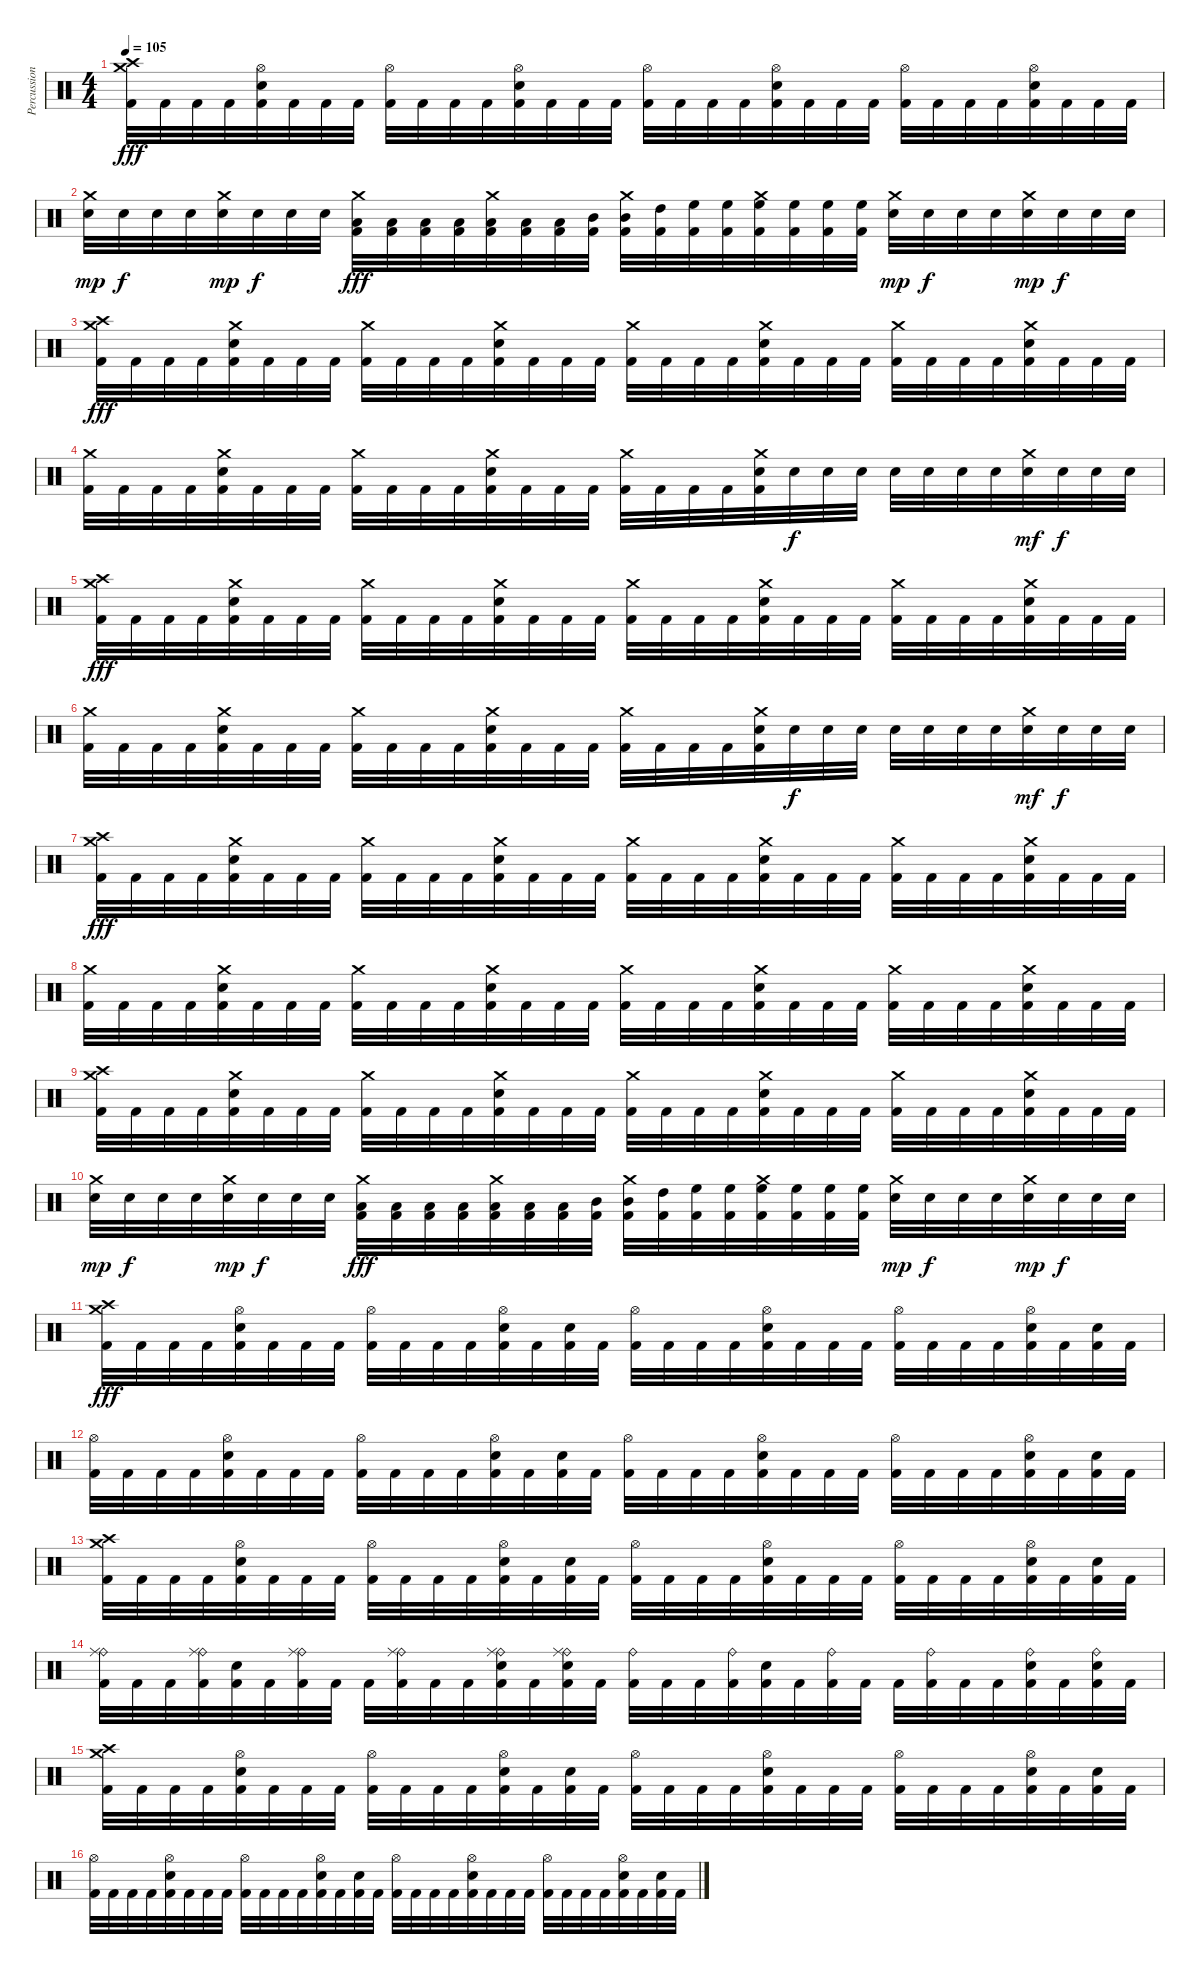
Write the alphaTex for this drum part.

\track ("Percussions" "Percussion") {instrument percussion}
\staff {score}
\articulation defaults
\ts (4 4)
\tempo 105
\clef neutral
\ks c
("Crash high (hit)" "Crash medium (hit)" "Kick (hit) 2").32{dy fff} "Kick (hit) 2".32 "Kick (hit) 2".32 "Kick (hit) 2".32 ("Hi-Hat (open)" "Electric Snare (hit)" "Kick (hit) 2").32 "Kick (hit) 2".32 "Kick (hit) 2".32 "Kick (hit) 2".32 ("Hi-Hat (open)" "Kick (hit) 2").32 "Kick (hit) 2".32 "Kick (hit) 2".32 "Kick (hit) 2".32 ("Hi-Hat (open)" "Electric Snare (hit)" "Kick (hit) 2").32 "Kick (hit) 2".32 "Kick (hit) 2".32 "Kick (hit) 2".32 ("Hi-Hat (open)" "Kick (hit) 2").32 "Kick (hit) 2".32 "Kick (hit) 2".32 "Kick (hit) 2".32 ("Hi-Hat (open)" "Electric Snare (hit)" "Kick (hit) 2").32 "Kick (hit) 2".32 "Kick (hit) 2".32 "Kick (hit) 2".32 ("Hi-Hat (open)" "Kick (hit) 2").32 "Kick (hit) 2".32 "Kick (hit) 2".32 "Kick (hit) 2".32 ("Hi-Hat (open)" "Electric Snare (hit)" "Kick (hit) 2").32 "Kick (hit) 2".32 "Kick (hit) 2".32 "Kick (hit) 2".32 |
("Crash medium (hit)" "Electric Snare (hit)").32{dy mp} "Electric Snare (hit)".32{dy f} "Electric Snare (hit)".32 "Electric Snare (hit)".32 ("Crash medium (hit)" "Electric Snare (hit)").32{dy mp} "Electric Snare (hit)".32{dy f} "Electric Snare (hit)".32 "Electric Snare (hit)".32 ("Crash medium (hit)" "Low Floor Tom (hit)" "Kick (hit) 2").32{dy fff} ("Low Floor Tom (hit)" "Kick (hit) 2").32 ("Low Floor Tom (hit)" "Kick (hit) 2").32 ("Low Floor Tom (hit)" "Kick (hit) 2").32 ("Crash medium (hit)" "Low Tom (hit)" "Kick (hit) 2").32 ("Low Tom (hit)" "Kick (hit) 2").32 ("Low Tom (hit)" "Kick (hit) 2").32 ("Mid Tom (hit)" "Kick (hit) 2").32 ("Crash medium (hit)" "Mid Tom (hit)" "Kick (hit) 2").32 ("High Tom (hit)" "Kick (hit) 2").32 ("High Floor Tom (hit)" "Kick (hit) 2").32 ("High Floor Tom (hit)" "Kick (hit) 2").32 ("Crash medium (hit)" "High Floor Tom (hit)" "Kick (hit) 2").32 ("High Floor Tom (hit)" "Kick (hit) 2").32 ("High Floor Tom (hit)" "Kick (hit) 2").32 ("High Floor Tom (hit)" "Kick (hit) 2").32 ("Crash medium (hit)" "Electric Snare (hit)").32{dy mp} "Electric Snare (hit)".32{dy f} "Electric Snare (hit)".32 "Electric Snare (hit)".32 ("Crash medium (hit)" "Electric Snare (hit)").32{dy mp} "Electric Snare (hit)".32{dy f} "Electric Snare (hit)".32 "Electric Snare (hit)".32 |
("Crash high (hit)" "Crash medium (hit)" "Kick (hit) 2").32{dy fff} "Kick (hit) 2".32 "Kick (hit) 2".32 "Kick (hit) 2".32 ("Crash medium (hit)" "Electric Snare (hit)" "Kick (hit) 2").32 "Kick (hit) 2".32 "Kick (hit) 2".32 "Kick (hit) 2".32 ("Crash medium (hit)" "Kick (hit) 2").32 "Kick (hit) 2".32 "Kick (hit) 2".32 "Kick (hit) 2".32 ("Crash medium (hit)" "Electric Snare (hit)" "Kick (hit) 2").32 "Kick (hit) 2".32 "Kick (hit) 2".32 "Kick (hit) 2".32 ("Crash medium (hit)" "Kick (hit) 2").32 "Kick (hit) 2".32 "Kick (hit) 2".32 "Kick (hit) 2".32 ("Crash medium (hit)" "Electric Snare (hit)" "Kick (hit) 2").32 "Kick (hit) 2".32 "Kick (hit) 2".32 "Kick (hit) 2".32 ("Crash medium (hit)" "Kick (hit) 2").32 "Kick (hit) 2".32 "Kick (hit) 2".32 "Kick (hit) 2".32 ("Crash medium (hit)" "Electric Snare (hit)" "Kick (hit) 2").32 "Kick (hit) 2".32 "Kick (hit) 2".32 "Kick (hit) 2".32 |
("Crash medium (hit)" "Kick (hit) 2").32 "Kick (hit) 2".32 "Kick (hit) 2".32 "Kick (hit) 2".32 ("Crash medium (hit)" "Electric Snare (hit)" "Kick (hit) 2").32 "Kick (hit) 2".32 "Kick (hit) 2".32 "Kick (hit) 2".32 ("Crash medium (hit)" "Kick (hit) 2").32 "Kick (hit) 2".32 "Kick (hit) 2".32 "Kick (hit) 2".32 ("Crash medium (hit)" "Electric Snare (hit)" "Kick (hit) 2").32 "Kick (hit) 2".32 "Kick (hit) 2".32 "Kick (hit) 2".32 ("Crash medium (hit)" "Kick (hit) 2").32 "Kick (hit) 2".32 "Kick (hit) 2".32 "Kick (hit) 2".32 ("Crash medium (hit)" "Electric Snare (hit)" "Kick (hit) 2").32 "Electric Snare (hit)".32{dy f} "Electric Snare (hit)".32 "Electric Snare (hit)".32 "Electric Snare (hit)".32 "Electric Snare (hit)".32 "Electric Snare (hit)".32 "Electric Snare (hit)".32 ("Crash medium (hit)" "Electric Snare (hit)").32{dy mf} "Electric Snare (hit)".32{dy f} "Electric Snare (hit)".32 "Electric Snare (hit)".32 |
("Crash high (hit)" "Crash medium (hit)" "Kick (hit) 2").32{dy fff} "Kick (hit) 2".32 "Kick (hit) 2".32 "Kick (hit) 2".32 ("Crash medium (hit)" "Electric Snare (hit)" "Kick (hit) 2").32 "Kick (hit) 2".32 "Kick (hit) 2".32 "Kick (hit) 2".32 ("Crash medium (hit)" "Kick (hit) 2").32 "Kick (hit) 2".32 "Kick (hit) 2".32 "Kick (hit) 2".32 ("Crash medium (hit)" "Electric Snare (hit)" "Kick (hit) 2").32 "Kick (hit) 2".32 "Kick (hit) 2".32 "Kick (hit) 2".32 ("Crash medium (hit)" "Kick (hit) 2").32 "Kick (hit) 2".32 "Kick (hit) 2".32 "Kick (hit) 2".32 ("Crash medium (hit)" "Electric Snare (hit)" "Kick (hit) 2").32 "Kick (hit) 2".32 "Kick (hit) 2".32 "Kick (hit) 2".32 ("Crash medium (hit)" "Kick (hit) 2").32 "Kick (hit) 2".32 "Kick (hit) 2".32 "Kick (hit) 2".32 ("Crash medium (hit)" "Electric Snare (hit)" "Kick (hit) 2").32 "Kick (hit) 2".32 "Kick (hit) 2".32 "Kick (hit) 2".32 |
("Crash medium (hit)" "Kick (hit) 2").32 "Kick (hit) 2".32 "Kick (hit) 2".32 "Kick (hit) 2".32 ("Crash medium (hit)" "Electric Snare (hit)" "Kick (hit) 2").32 "Kick (hit) 2".32 "Kick (hit) 2".32 "Kick (hit) 2".32 ("Crash medium (hit)" "Kick (hit) 2").32 "Kick (hit) 2".32 "Kick (hit) 2".32 "Kick (hit) 2".32 ("Crash medium (hit)" "Electric Snare (hit)" "Kick (hit) 2").32 "Kick (hit) 2".32 "Kick (hit) 2".32 "Kick (hit) 2".32 ("Crash medium (hit)" "Kick (hit) 2").32 "Kick (hit) 2".32 "Kick (hit) 2".32 "Kick (hit) 2".32 ("Crash medium (hit)" "Electric Snare (hit)" "Kick (hit) 2").32 "Electric Snare (hit)".32{dy f} "Electric Snare (hit)".32 "Electric Snare (hit)".32 "Electric Snare (hit)".32 "Electric Snare (hit)".32 "Electric Snare (hit)".32 "Electric Snare (hit)".32 ("Crash medium (hit)" "Electric Snare (hit)").32{dy mf} "Electric Snare (hit)".32{dy f} "Electric Snare (hit)".32 "Electric Snare (hit)".32 |
("Crash high (hit)" "Crash medium (hit)" "Kick (hit) 2").32{dy fff} "Kick (hit) 2".32 "Kick (hit) 2".32 "Kick (hit) 2".32 ("Crash medium (hit)" "Electric Snare (hit)" "Kick (hit) 2").32 "Kick (hit) 2".32 "Kick (hit) 2".32 "Kick (hit) 2".32 ("Crash medium (hit)" "Kick (hit) 2").32 "Kick (hit) 2".32 "Kick (hit) 2".32 "Kick (hit) 2".32 ("Crash medium (hit)" "Electric Snare (hit)" "Kick (hit) 2").32 "Kick (hit) 2".32 "Kick (hit) 2".32 "Kick (hit) 2".32 ("Crash medium (hit)" "Kick (hit) 2").32 "Kick (hit) 2".32 "Kick (hit) 2".32 "Kick (hit) 2".32 ("Crash medium (hit)" "Electric Snare (hit)" "Kick (hit) 2").32 "Kick (hit) 2".32 "Kick (hit) 2".32 "Kick (hit) 2".32 ("Crash medium (hit)" "Kick (hit) 2").32 "Kick (hit) 2".32 "Kick (hit) 2".32 "Kick (hit) 2".32 ("Crash medium (hit)" "Electric Snare (hit)" "Kick (hit) 2").32 "Kick (hit) 2".32 "Kick (hit) 2".32 "Kick (hit) 2".32 |
("Crash medium (hit)" "Kick (hit) 2").32 "Kick (hit) 2".32 "Kick (hit) 2".32 "Kick (hit) 2".32 ("Crash medium (hit)" "Electric Snare (hit)" "Kick (hit) 2").32 "Kick (hit) 2".32 "Kick (hit) 2".32 "Kick (hit) 2".32 ("Crash medium (hit)" "Kick (hit) 2").32 "Kick (hit) 2".32 "Kick (hit) 2".32 "Kick (hit) 2".32 ("Crash medium (hit)" "Electric Snare (hit)" "Kick (hit) 2").32 "Kick (hit) 2".32 "Kick (hit) 2".32 "Kick (hit) 2".32 ("Crash medium (hit)" "Kick (hit) 2").32 "Kick (hit) 2".32 "Kick (hit) 2".32 "Kick (hit) 2".32 ("Crash medium (hit)" "Electric Snare (hit)" "Kick (hit) 2").32 "Kick (hit) 2".32 "Kick (hit) 2".32 "Kick (hit) 2".32 ("Crash medium (hit)" "Kick (hit) 2").32 "Kick (hit) 2".32 "Kick (hit) 2".32 "Kick (hit) 2".32 ("Crash medium (hit)" "Electric Snare (hit)" "Kick (hit) 2").32 "Kick (hit) 2".32 "Kick (hit) 2".32 "Kick (hit) 2".32 |
("Crash high (hit)" "Crash medium (hit)" "Kick (hit) 2").32 "Kick (hit) 2".32 "Kick (hit) 2".32 "Kick (hit) 2".32 ("Crash medium (hit)" "Electric Snare (hit)" "Kick (hit) 2").32 "Kick (hit) 2".32 "Kick (hit) 2".32 "Kick (hit) 2".32 ("Crash medium (hit)" "Kick (hit) 2").32 "Kick (hit) 2".32 "Kick (hit) 2".32 "Kick (hit) 2".32 ("Crash medium (hit)" "Electric Snare (hit)" "Kick (hit) 2").32 "Kick (hit) 2".32 "Kick (hit) 2".32 "Kick (hit) 2".32 ("Crash medium (hit)" "Kick (hit) 2").32 "Kick (hit) 2".32 "Kick (hit) 2".32 "Kick (hit) 2".32 ("Crash medium (hit)" "Electric Snare (hit)" "Kick (hit) 2").32 "Kick (hit) 2".32 "Kick (hit) 2".32 "Kick (hit) 2".32 ("Crash medium (hit)" "Kick (hit) 2").32 "Kick (hit) 2".32 "Kick (hit) 2".32 "Kick (hit) 2".32 ("Crash medium (hit)" "Electric Snare (hit)" "Kick (hit) 2").32 "Kick (hit) 2".32 "Kick (hit) 2".32 "Kick (hit) 2".32 |
("Crash medium (hit)" "Electric Snare (hit)").32{dy mp} "Electric Snare (hit)".32{dy f} "Electric Snare (hit)".32 "Electric Snare (hit)".32 ("Crash medium (hit)" "Electric Snare (hit)").32{dy mp} "Electric Snare (hit)".32{dy f} "Electric Snare (hit)".32 "Electric Snare (hit)".32 ("Crash medium (hit)" "Low Floor Tom (hit)" "Kick (hit) 2").32{dy fff} ("Low Floor Tom (hit)" "Kick (hit) 2").32 ("Low Floor Tom (hit)" "Kick (hit) 2").32 ("Low Floor Tom (hit)" "Kick (hit) 2").32 ("Crash medium (hit)" "Low Tom (hit)" "Kick (hit) 2").32 ("Low Tom (hit)" "Kick (hit) 2").32 ("Low Tom (hit)" "Kick (hit) 2").32 ("Mid Tom (hit)" "Kick (hit) 2").32 ("Crash medium (hit)" "Mid Tom (hit)" "Kick (hit) 2").32 ("High Tom (hit)" "Kick (hit) 2").32 ("High Floor Tom (hit)" "Kick (hit) 2").32 ("High Floor Tom (hit)" "Kick (hit) 2").32 ("Crash medium (hit)" "High Floor Tom (hit)" "Kick (hit) 2").32 ("High Floor Tom (hit)" "Kick (hit) 2").32 ("High Floor Tom (hit)" "Kick (hit) 2").32 ("High Floor Tom (hit)" "Kick (hit) 2").32 ("Crash medium (hit)" "Electric Snare (hit)").32{dy mp} "Electric Snare (hit)".32{dy f} "Electric Snare (hit)".32 "Electric Snare (hit)".32 ("Crash medium (hit)" "Electric Snare (hit)").32{dy mp} "Electric Snare (hit)".32{dy f} "Electric Snare (hit)".32 "Electric Snare (hit)".32 |
("Crash high (hit)" "Crash medium (hit)" "Kick (hit) 2").32{dy fff} "Kick (hit) 2".32 "Kick (hit) 2".32 "Kick (hit) 2".32 ("Hi-Hat (open)" "Electric Snare (hit)" "Kick (hit) 2").32 "Kick (hit) 2".32 "Kick (hit) 2".32 "Kick (hit) 2".32 ("Hi-Hat (open)" "Kick (hit) 2").32 "Kick (hit) 2".32 "Kick (hit) 2".32 "Kick (hit) 2".32 ("Hi-Hat (open)" "Electric Snare (hit)" "Kick (hit) 2").32 "Kick (hit) 2".32 ("Electric Snare (hit)" "Kick (hit) 2").32 "Kick (hit) 2".32 ("Hi-Hat (open)" "Kick (hit) 2").32 "Kick (hit) 2".32 "Kick (hit) 2".32 "Kick (hit) 2".32 ("Hi-Hat (open)" "Electric Snare (hit)" "Kick (hit) 2").32 "Kick (hit) 2".32 "Kick (hit) 2".32 "Kick (hit) 2".32 ("Hi-Hat (open)" "Kick (hit) 2").32 "Kick (hit) 2".32 "Kick (hit) 2".32 "Kick (hit) 2".32 ("Hi-Hat (open)" "Electric Snare (hit)" "Kick (hit) 2").32 "Kick (hit) 2".32 ("Electric Snare (hit)" "Kick (hit) 2").32 "Kick (hit) 2".32 |
("Hi-Hat (open)" "Kick (hit) 2").32 "Kick (hit) 2".32 "Kick (hit) 2".32 "Kick (hit) 2".32 ("Hi-Hat (open)" "Electric Snare (hit)" "Kick (hit) 2").32 "Kick (hit) 2".32 "Kick (hit) 2".32 "Kick (hit) 2".32 ("Hi-Hat (open)" "Kick (hit) 2").32 "Kick (hit) 2".32 "Kick (hit) 2".32 "Kick (hit) 2".32 ("Hi-Hat (open)" "Electric Snare (hit)" "Kick (hit) 2").32 "Kick (hit) 2".32 ("Electric Snare (hit)" "Kick (hit) 2").32 "Kick (hit) 2".32 ("Hi-Hat (open)" "Kick (hit) 2").32 "Kick (hit) 2".32 "Kick (hit) 2".32 "Kick (hit) 2".32 ("Hi-Hat (open)" "Electric Snare (hit)" "Kick (hit) 2").32 "Kick (hit) 2".32 "Kick (hit) 2".32 "Kick (hit) 2".32 ("Hi-Hat (open)" "Kick (hit) 2").32 "Kick (hit) 2".32 "Kick (hit) 2".32 "Kick (hit) 2".32 ("Hi-Hat (open)" "Electric Snare (hit)" "Kick (hit) 2").32 "Kick (hit) 2".32 ("Electric Snare (hit)" "Kick (hit) 2").32 "Kick (hit) 2".32 |
("Crash high (hit)" "Crash medium (hit)" "Kick (hit) 2").32 "Kick (hit) 2".32 "Kick (hit) 2".32 "Kick (hit) 2".32 ("Hi-Hat (open)" "Electric Snare (hit)" "Kick (hit) 2").32 "Kick (hit) 2".32 "Kick (hit) 2".32 "Kick (hit) 2".32 ("Hi-Hat (open)" "Kick (hit) 2").32 "Kick (hit) 2".32 "Kick (hit) 2".32 "Kick (hit) 2".32 ("Hi-Hat (open)" "Electric Snare (hit)" "Kick (hit) 2").32 "Kick (hit) 2".32 ("Electric Snare (hit)" "Kick (hit) 2").32 "Kick (hit) 2".32 ("Hi-Hat (open)" "Kick (hit) 2").32 "Kick (hit) 2".32 "Kick (hit) 2".32 "Kick (hit) 2".32 ("Hi-Hat (open)" "Electric Snare (hit)" "Kick (hit) 2").32 "Kick (hit) 2".32 "Kick (hit) 2".32 "Kick (hit) 2".32 ("Hi-Hat (open)" "Kick (hit) 2").32 "Kick (hit) 2".32 "Kick (hit) 2".32 "Kick (hit) 2".32 ("Hi-Hat (open)" "Electric Snare (hit)" "Kick (hit) 2").32 "Kick (hit) 2".32 ("Electric Snare (hit)" "Kick (hit) 2").32 "Kick (hit) 2".32 |
("Ride (bell)" "Ride (middle)" "Kick (hit) 2").32 "Kick (hit) 2".32 "Kick (hit) 2".32 ("Ride (bell)" "Ride (middle)" "Kick (hit) 2").32 ("Electric Snare (hit)" "Kick (hit) 2").32 "Kick (hit) 2".32 ("Ride (bell)" "Ride (middle)" "Kick (hit) 2").32 "Kick (hit) 2".32 "Kick (hit) 2".32 ("Ride (bell)" "Ride (middle)" "Kick (hit) 2").32 "Kick (hit) 2".32 "Kick (hit) 2".32 ("Ride (bell)" "Ride (middle)" "Electric Snare (hit)" "Kick (hit) 2").32 "Kick (hit) 2".32 ("Ride (bell)" "Ride (middle)" "Electric Snare (hit)" "Kick (hit) 2").32 "Kick (hit) 2".32 ("Ride (bell)" "Kick (hit) 2").32 "Kick (hit) 2".32 "Kick (hit) 2".32 ("Ride (bell)" "Kick (hit) 2").32 ("Electric Snare (hit)" "Kick (hit) 2").32 "Kick (hit) 2".32 ("Ride (bell)" "Kick (hit) 2").32 "Kick (hit) 2".32 "Kick (hit) 2".32 ("Ride (bell)" "Kick (hit) 2").32 "Kick (hit) 2".32 "Kick (hit) 2".32 ("Ride (bell)" "Electric Snare (hit)" "Kick (hit) 2").32 "Kick (hit) 2".32 ("Ride (bell)" "Electric Snare (hit)" "Kick (hit) 2").32 "Kick (hit) 2".32 |
("Crash high (hit)" "Crash medium (hit)" "Kick (hit) 2").32 "Kick (hit) 2".32 "Kick (hit) 2".32 "Kick (hit) 2".32 ("Hi-Hat (open)" "Electric Snare (hit)" "Kick (hit) 2").32 "Kick (hit) 2".32 "Kick (hit) 2".32 "Kick (hit) 2".32 ("Hi-Hat (open)" "Kick (hit) 2").32 "Kick (hit) 2".32 "Kick (hit) 2".32 "Kick (hit) 2".32 ("Hi-Hat (open)" "Electric Snare (hit)" "Kick (hit) 2").32 "Kick (hit) 2".32 ("Electric Snare (hit)" "Kick (hit) 2").32 "Kick (hit) 2".32 ("Hi-Hat (open)" "Kick (hit) 2").32 "Kick (hit) 2".32 "Kick (hit) 2".32 "Kick (hit) 2".32 ("Hi-Hat (open)" "Electric Snare (hit)" "Kick (hit) 2").32 "Kick (hit) 2".32 "Kick (hit) 2".32 "Kick (hit) 2".32 ("Hi-Hat (open)" "Kick (hit) 2").32 "Kick (hit) 2".32 "Kick (hit) 2".32 "Kick (hit) 2".32 ("Hi-Hat (open)" "Electric Snare (hit)" "Kick (hit) 2").32 "Kick (hit) 2".32 ("Electric Snare (hit)" "Kick (hit) 2").32 "Kick (hit) 2".32 |
("Hi-Hat (open)" "Kick (hit) 2").32 "Kick (hit) 2".32 "Kick (hit) 2".32 "Kick (hit) 2".32 ("Hi-Hat (open)" "Electric Snare (hit)" "Kick (hit) 2").32 "Kick (hit) 2".32 "Kick (hit) 2".32 "Kick (hit) 2".32 ("Hi-Hat (open)" "Kick (hit) 2").32 "Kick (hit) 2".32 "Kick (hit) 2".32 "Kick (hit) 2".32 ("Hi-Hat (open)" "Electric Snare (hit)" "Kick (hit) 2").32 "Kick (hit) 2".32 ("Electric Snare (hit)" "Kick (hit) 2").32 "Kick (hit) 2".32 ("Hi-Hat (open)" "Kick (hit) 2").32 "Kick (hit) 2".32 "Kick (hit) 2".32 "Kick (hit) 2".32 ("Hi-Hat (open)" "Electric Snare (hit)" "Kick (hit) 2").32 "Kick (hit) 2".32 "Kick (hit) 2".32 "Kick (hit) 2".32 ("Hi-Hat (open)" "Kick (hit) 2").32 "Kick (hit) 2".32 "Kick (hit) 2".32 "Kick (hit) 2".32 ("Hi-Hat (open)" "Electric Snare (hit)" "Kick (hit) 2").32 "Kick (hit) 2".32 ("Electric Snare (hit)" "Kick (hit) 2").32 "Kick (hit) 2".32
